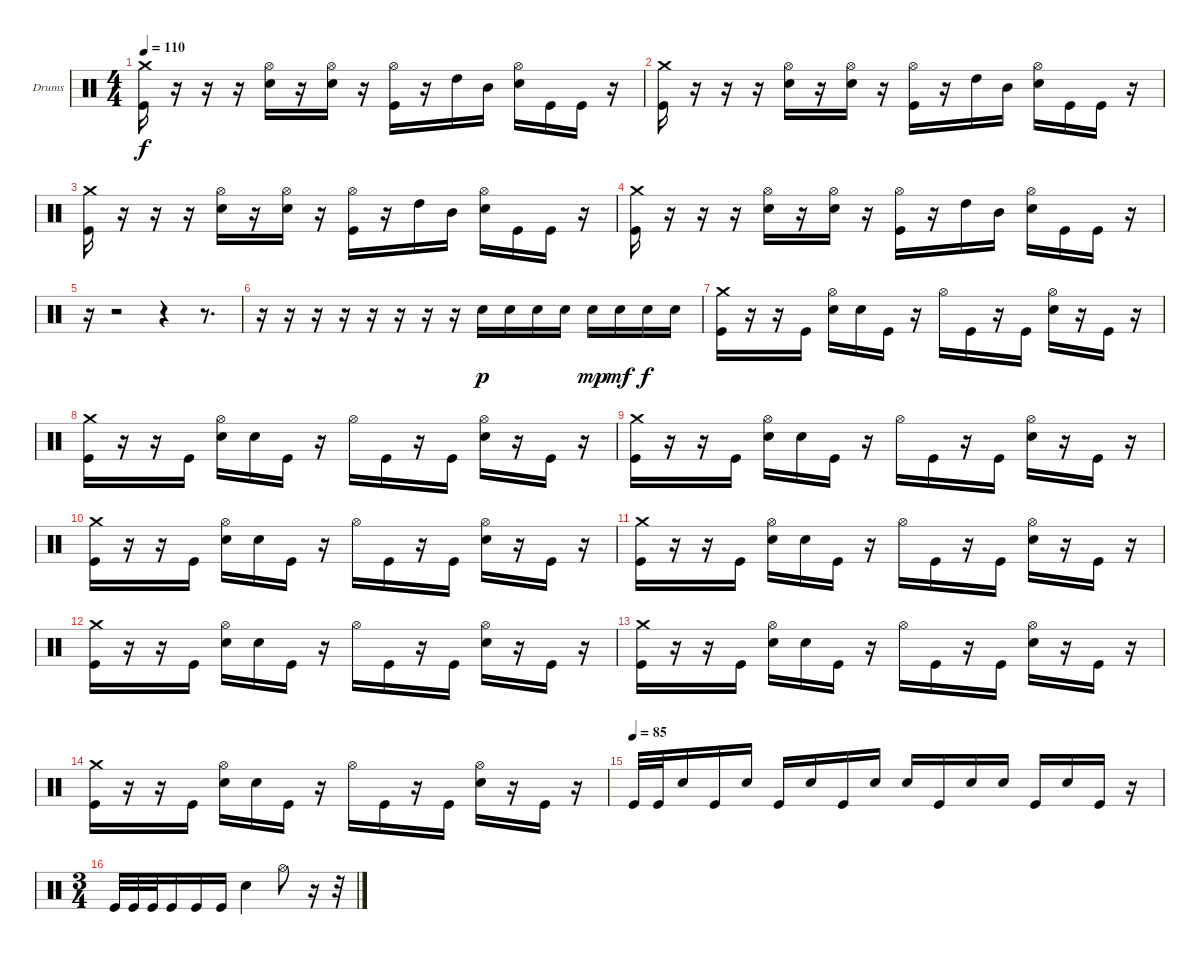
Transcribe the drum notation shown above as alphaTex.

\bracketExtendMode groupsimilarinstruments
\firstSystemTrackNameOrientation horizontal
\otherSystemsTrackNameOrientation horizontal
\track ("Drumkit" "Drums") {instrument percussion}
\staff {score}
\articulation defaults
\ts (4 4)
\tempo 110
\clef neutral
\ks c
("Crash medium (hit)" "Kick (hit)").16{dy f} r.16 r.16 r.16 ("Hi-Hat (open)" "Snare (hit) 2").16 r.16 ("Hi-Hat (open)" "Snare (hit) 2").16 r.16 ("Hi-Hat (open)" "Kick (hit)").16 r.16 "High Tom (hit)".16 "Mid Tom (hit)".16 ("Hi-Hat (open)" "Snare (hit) 2").16 "Kick (hit)".16 "Kick (hit)".16 r.16 |
("Crash medium (hit)" "Kick (hit)").16 r.16 r.16 r.16 ("Hi-Hat (open)" "Snare (hit) 2").16 r.16 ("Hi-Hat (open)" "Snare (hit) 2").16 r.16 ("Hi-Hat (open)" "Kick (hit)").16 r.16 "High Tom (hit)".16 "Mid Tom (hit)".16 ("Hi-Hat (open)" "Snare (hit) 2").16 "Kick (hit)".16 "Kick (hit)".16 r.16 |
("Crash medium (hit)" "Kick (hit)").16 r.16 r.16 r.16 ("Hi-Hat (open)" "Snare (hit) 2").16 r.16 ("Hi-Hat (open)" "Snare (hit) 2").16 r.16 ("Hi-Hat (open)" "Kick (hit)").16 r.16 "High Tom (hit)".16 "Mid Tom (hit)".16 ("Hi-Hat (open)" "Snare (hit) 2").16 "Kick (hit)".16 "Kick (hit)".16 r.16 |
("Crash medium (hit)" "Kick (hit)").16 r.16 r.16 r.16 ("Hi-Hat (open)" "Snare (hit) 2").16 r.16 ("Hi-Hat (open)" "Snare (hit) 2").16 r.16 ("Hi-Hat (open)" "Kick (hit)").16 r.16 "High Tom (hit)".16 "Mid Tom (hit)".16 ("Hi-Hat (open)" "Snare (hit) 2").16 "Kick (hit)".16 "Kick (hit)".16 r.16 |
r.16 r.2 r.4 r.8{d} |
r.16 r.16 r.16 r.16 r.16 r.16 r.16 r.16 "Snare (hit) 2".16{dy p} "Snare (hit) 2".16 "Snare (hit) 2".16 "Snare (hit) 2".16 "Snare (hit) 2".16{dy mp} "Snare (hit) 2".16{dy mf} "Snare (hit) 2".16{dy f} "Snare (hit) 2".16 |
("Crash medium (hit)" "Kick (hit)").16 r.16 r.16 "Kick (hit)".16 ("Hi-Hat (open)" "Snare (hit) 2").16 "Snare (hit) 2".16 "Kick (hit)".16 r.16 "Hi-Hat (open)".16 "Kick (hit)".16 r.16 "Kick (hit)".16 ("Hi-Hat (open)" "Snare (hit) 2").16 r.16 "Kick (hit)".16 r.16 |
("Crash medium (hit)" "Kick (hit)").16 r.16 r.16 "Kick (hit)".16 ("Hi-Hat (open)" "Snare (hit) 2").16 "Snare (hit) 2".16 "Kick (hit)".16 r.16 "Hi-Hat (open)".16 "Kick (hit)".16 r.16 "Kick (hit)".16 ("Hi-Hat (open)" "Snare (hit) 2").16 r.16 "Kick (hit)".16 r.16 |
("Crash medium (hit)" "Kick (hit)").16 r.16 r.16 "Kick (hit)".16 ("Hi-Hat (open)" "Snare (hit) 2").16 "Snare (hit) 2".16 "Kick (hit)".16 r.16 "Hi-Hat (open)".16 "Kick (hit)".16 r.16 "Kick (hit)".16 ("Hi-Hat (open)" "Snare (hit) 2").16 r.16 "Kick (hit)".16 r.16 |
("Crash medium (hit)" "Kick (hit)").16 r.16 r.16 "Kick (hit)".16 ("Hi-Hat (open)" "Snare (hit) 2").16 "Snare (hit) 2".16 "Kick (hit)".16 r.16 "Hi-Hat (open)".16 "Kick (hit)".16 r.16 "Kick (hit)".16 ("Hi-Hat (open)" "Snare (hit) 2").16 r.16 "Kick (hit)".16 r.16 |
("Crash medium (hit)" "Kick (hit)").16 r.16 r.16 "Kick (hit)".16 ("Hi-Hat (open)" "Snare (hit) 2").16 "Snare (hit) 2".16 "Kick (hit)".16 r.16 "Hi-Hat (open)".16 "Kick (hit)".16 r.16 "Kick (hit)".16 ("Hi-Hat (open)" "Snare (hit) 2").16 r.16 "Kick (hit)".16 r.16 |
("Crash medium (hit)" "Kick (hit)").16 r.16 r.16 "Kick (hit)".16 ("Hi-Hat (open)" "Snare (hit) 2").16 "Snare (hit) 2".16 "Kick (hit)".16 r.16 "Hi-Hat (open)".16 "Kick (hit)".16 r.16 "Kick (hit)".16 ("Hi-Hat (open)" "Snare (hit) 2").16 r.16 "Kick (hit)".16 r.16 |
("Crash medium (hit)" "Kick (hit)").16 r.16 r.16 "Kick (hit)".16 ("Hi-Hat (open)" "Snare (hit) 2").16 "Snare (hit) 2".16 "Kick (hit)".16 r.16 "Hi-Hat (open)".16 "Kick (hit)".16 r.16 "Kick (hit)".16 ("Hi-Hat (open)" "Snare (hit) 2").16 r.16 "Kick (hit)".16 r.16 |
("Crash medium (hit)" "Kick (hit)").16 r.16 r.16 "Kick (hit)".16 ("Hi-Hat (open)" "Snare (hit) 2").16 "Snare (hit) 2".16 "Kick (hit)".16 r.16 "Hi-Hat (open)".16 "Kick (hit)".16 r.16 "Kick (hit)".16 ("Hi-Hat (open)" "Snare (hit) 2").16 r.16 "Kick (hit)".16 r.16 |
\tempo (85)
"Kick (hit)".32 "Kick (hit)".32 "Snare (hit) 2".16 "Kick (hit)".16 "Snare (hit) 2".16 "Kick (hit)".16 "Snare (hit) 2".16 "Kick (hit)".16 "Snare (hit) 2".16 "Snare (hit) 2".16 "Kick (hit)".16 "Snare (hit) 2".16 "Snare (hit) 2".16 "Kick (hit)".16 "Snare (hit) 2".16 "Kick (hit)".16 r.16 |
\ts (3 4)
\beaming (8 2 2 2)
"Kick (hit)".32 "Kick (hit)".32 "Kick (hit)".32 "Kick (hit)".16 "Kick (hit)".16 "Kick (hit)".16 "Snare (hit) 2".4 "Hi-Hat (open)".8 r.16 r.32
